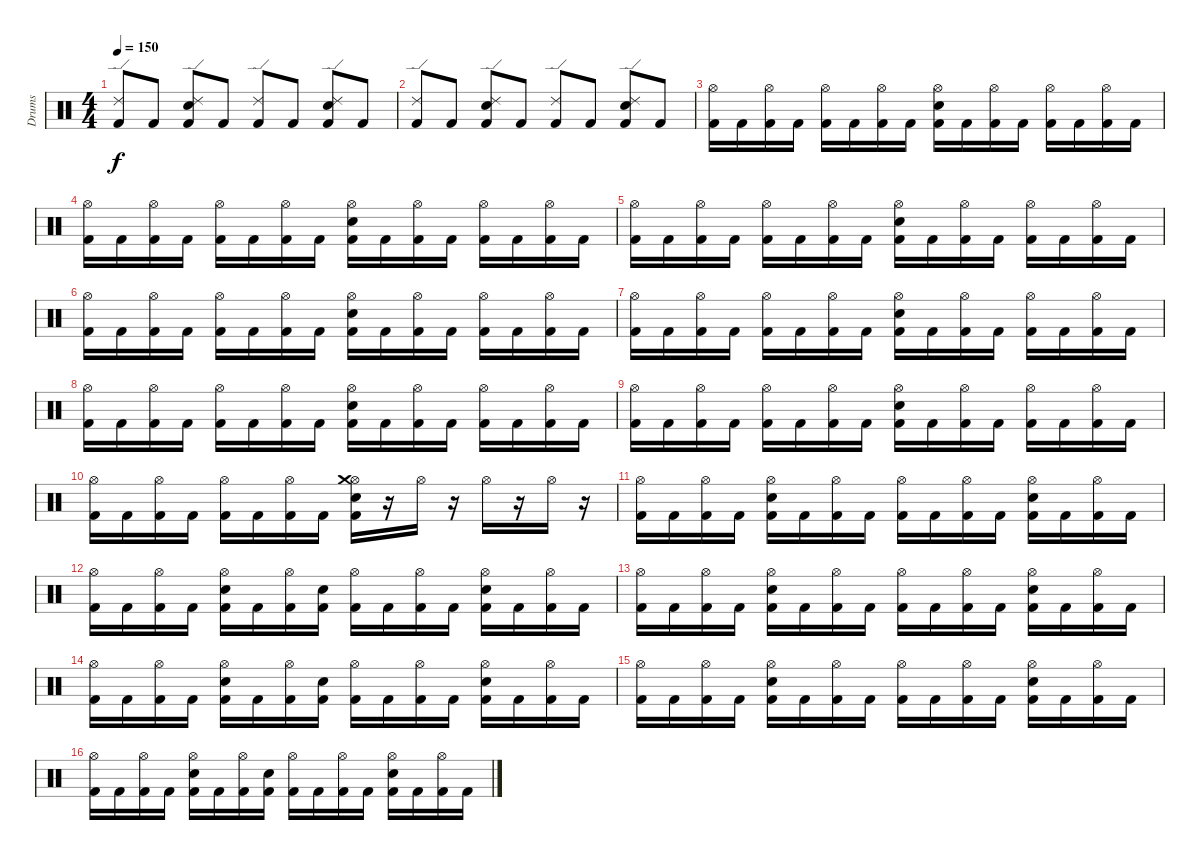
\track ("Drums" "Drums") {instrument percussion}
\staff {score}
\articulation defaults
\ts (4 4)
\tempo 150
\clef neutral
\ks c
("Ride (edge) 2" "Kick (hit) 2").8{dy f} "Kick (hit) 2".8 ("Ride (edge) 2" "Kick (hit) 2" "Snare (hit) 2").8 "Kick (hit) 2".8 ("Ride (edge) 2" "Kick (hit) 2").8 "Kick (hit) 2".8 ("Ride (edge) 2" "Kick (hit) 2" "Snare (hit) 2").8 "Kick (hit) 2".8 |
("Ride (edge) 2" "Kick (hit) 2").8 "Kick (hit) 2".8 ("Ride (edge) 2" "Kick (hit) 2" "Snare (hit) 2").8 "Kick (hit) 2".8 ("Ride (edge) 2" "Kick (hit) 2").8 "Kick (hit) 2".8 ("Ride (edge) 2" "Kick (hit) 2" "Snare (hit) 2").8 "Kick (hit) 2".8 |
("Hi-Hat (open)" "Kick (hit) 2").16 "Kick (hit) 2".16 ("Hi-Hat (open)" "Kick (hit) 2").16 "Kick (hit) 2".16 ("Hi-Hat (open)" "Kick (hit) 2").16 "Kick (hit) 2".16 ("Hi-Hat (open)" "Kick (hit) 2").16 "Kick (hit) 2".16 ("Hi-Hat (open)" "Kick (hit) 2" "Snare (hit) 2").16 "Kick (hit) 2".16 ("Hi-Hat (open)" "Kick (hit) 2").16 "Kick (hit) 2".16 ("Hi-Hat (open)" "Kick (hit) 2").16 "Kick (hit) 2".16 ("Hi-Hat (open)" "Kick (hit) 2").16 "Kick (hit) 2".16 |
("Hi-Hat (open)" "Kick (hit) 2").16 "Kick (hit) 2".16 ("Hi-Hat (open)" "Kick (hit) 2").16 "Kick (hit) 2".16 ("Hi-Hat (open)" "Kick (hit) 2").16 "Kick (hit) 2".16 ("Hi-Hat (open)" "Kick (hit) 2").16 "Kick (hit) 2".16 ("Hi-Hat (open)" "Kick (hit) 2" "Snare (hit) 2").16 "Kick (hit) 2".16 ("Hi-Hat (open)" "Kick (hit) 2").16 "Kick (hit) 2".16 ("Hi-Hat (open)" "Kick (hit) 2").16 "Kick (hit) 2".16 ("Hi-Hat (open)" "Kick (hit) 2").16 "Kick (hit) 2".16 |
("Hi-Hat (open)" "Kick (hit) 2").16 "Kick (hit) 2".16 ("Hi-Hat (open)" "Kick (hit) 2").16 "Kick (hit) 2".16 ("Hi-Hat (open)" "Kick (hit) 2").16 "Kick (hit) 2".16 ("Hi-Hat (open)" "Kick (hit) 2").16 "Kick (hit) 2".16 ("Hi-Hat (open)" "Kick (hit) 2" "Snare (hit) 2").16 "Kick (hit) 2".16 ("Hi-Hat (open)" "Kick (hit) 2").16 "Kick (hit) 2".16 ("Hi-Hat (open)" "Kick (hit) 2").16 "Kick (hit) 2".16 ("Hi-Hat (open)" "Kick (hit) 2").16 "Kick (hit) 2".16 |
("Hi-Hat (open)" "Kick (hit) 2").16 "Kick (hit) 2".16 ("Hi-Hat (open)" "Kick (hit) 2").16 "Kick (hit) 2".16 ("Hi-Hat (open)" "Kick (hit) 2").16 "Kick (hit) 2".16 ("Hi-Hat (open)" "Kick (hit) 2").16 "Kick (hit) 2".16 ("Hi-Hat (open)" "Kick (hit) 2" "Snare (hit) 2").16 "Kick (hit) 2".16 ("Hi-Hat (open)" "Kick (hit) 2").16 "Kick (hit) 2".16 ("Hi-Hat (open)" "Kick (hit) 2").16 "Kick (hit) 2".16 ("Hi-Hat (open)" "Kick (hit) 2").16 "Kick (hit) 2".16 |
("Hi-Hat (open)" "Kick (hit) 2").16 "Kick (hit) 2".16 ("Hi-Hat (open)" "Kick (hit) 2").16 "Kick (hit) 2".16 ("Hi-Hat (open)" "Kick (hit) 2").16 "Kick (hit) 2".16 ("Hi-Hat (open)" "Kick (hit) 2").16 "Kick (hit) 2".16 ("Hi-Hat (open)" "Kick (hit) 2" "Snare (hit) 2").16 "Kick (hit) 2".16 ("Hi-Hat (open)" "Kick (hit) 2").16 "Kick (hit) 2".16 ("Hi-Hat (open)" "Kick (hit) 2").16 "Kick (hit) 2".16 ("Hi-Hat (open)" "Kick (hit) 2").16 "Kick (hit) 2".16 |
("Hi-Hat (open)" "Kick (hit) 2").16 "Kick (hit) 2".16 ("Hi-Hat (open)" "Kick (hit) 2").16 "Kick (hit) 2".16 ("Hi-Hat (open)" "Kick (hit) 2").16 "Kick (hit) 2".16 ("Hi-Hat (open)" "Kick (hit) 2").16 "Kick (hit) 2".16 ("Hi-Hat (open)" "Kick (hit) 2" "Snare (hit) 2").16 "Kick (hit) 2".16 ("Hi-Hat (open)" "Kick (hit) 2").16 "Kick (hit) 2".16 ("Hi-Hat (open)" "Kick (hit) 2").16 "Kick (hit) 2".16 ("Hi-Hat (open)" "Kick (hit) 2").16 "Kick (hit) 2".16 |
("Hi-Hat (open)" "Kick (hit) 2").16 "Kick (hit) 2".16 ("Hi-Hat (open)" "Kick (hit) 2").16 "Kick (hit) 2".16 ("Hi-Hat (open)" "Kick (hit) 2").16 "Kick (hit) 2".16 ("Hi-Hat (open)" "Kick (hit) 2").16 "Kick (hit) 2".16 ("Hi-Hat (open)" "Kick (hit) 2" "Snare (hit) 2").16 "Kick (hit) 2".16 ("Hi-Hat (open)" "Kick (hit) 2").16 "Kick (hit) 2".16 ("Hi-Hat (open)" "Kick (hit) 2").16 "Kick (hit) 2".16 ("Hi-Hat (open)" "Kick (hit) 2").16 "Kick (hit) 2".16 |
("Hi-Hat (open)" "Kick (hit) 2").16 "Kick (hit) 2".16 ("Hi-Hat (open)" "Kick (hit) 2").16 "Kick (hit) 2".16 ("Hi-Hat (open)" "Kick (hit) 2").16 "Kick (hit) 2".16 ("Hi-Hat (open)" "Kick (hit) 2").16 "Kick (hit) 2".16 ("Hi-Hat (open)" "Crash medium (hit)" "Snare (hit) 2" "Kick (hit) 2").16 r.16 "Hi-Hat (open)".16 r.16 "Hi-Hat (open)".16 r.16 "Hi-Hat (open)".16 r.16 |
("Hi-Hat (open)" "Kick (hit) 2").16 "Kick (hit) 2".16 ("Hi-Hat (open)" "Kick (hit) 2").16 "Kick (hit) 2".16 ("Hi-Hat (open)" "Kick (hit) 2" "Snare (hit) 2").16 "Kick (hit) 2".16 ("Hi-Hat (open)" "Kick (hit) 2").16 "Kick (hit) 2".16 ("Hi-Hat (open)" "Kick (hit) 2").16 "Kick (hit) 2".16 ("Hi-Hat (open)" "Kick (hit) 2").16 "Kick (hit) 2".16 ("Hi-Hat (open)" "Kick (hit) 2" "Snare (hit) 2").16 "Kick (hit) 2".16 ("Hi-Hat (open)" "Kick (hit) 2").16 "Kick (hit) 2".16 |
("Hi-Hat (open)" "Kick (hit) 2").16 "Kick (hit) 2".16 ("Hi-Hat (open)" "Kick (hit) 2").16 "Kick (hit) 2".16 ("Hi-Hat (open)" "Kick (hit) 2" "Snare (hit) 2").16 "Kick (hit) 2".16 ("Hi-Hat (open)" "Kick (hit) 2").16 ("Kick (hit) 2" "Snare (hit) 2").16 ("Hi-Hat (open)" "Kick (hit) 2").16 "Kick (hit) 2".16 ("Hi-Hat (open)" "Kick (hit) 2").16 "Kick (hit) 2".16 ("Hi-Hat (open)" "Kick (hit) 2" "Snare (hit) 2").16 "Kick (hit) 2".16 ("Hi-Hat (open)" "Kick (hit) 2").16 "Kick (hit) 2".16 |
("Hi-Hat (open)" "Kick (hit) 2").16 "Kick (hit) 2".16 ("Hi-Hat (open)" "Kick (hit) 2").16 "Kick (hit) 2".16 ("Hi-Hat (open)" "Kick (hit) 2" "Snare (hit) 2").16 "Kick (hit) 2".16 ("Hi-Hat (open)" "Kick (hit) 2").16 "Kick (hit) 2".16 ("Hi-Hat (open)" "Kick (hit) 2").16 "Kick (hit) 2".16 ("Hi-Hat (open)" "Kick (hit) 2").16 "Kick (hit) 2".16 ("Hi-Hat (open)" "Kick (hit) 2" "Snare (hit) 2").16 "Kick (hit) 2".16 ("Hi-Hat (open)" "Kick (hit) 2").16 "Kick (hit) 2".16 |
("Hi-Hat (open)" "Kick (hit) 2").16 "Kick (hit) 2".16 ("Hi-Hat (open)" "Kick (hit) 2").16 "Kick (hit) 2".16 ("Hi-Hat (open)" "Kick (hit) 2" "Snare (hit) 2").16 "Kick (hit) 2".16 ("Hi-Hat (open)" "Kick (hit) 2").16 ("Kick (hit) 2" "Snare (hit) 2").16 ("Hi-Hat (open)" "Kick (hit) 2").16 "Kick (hit) 2".16 ("Hi-Hat (open)" "Kick (hit) 2").16 "Kick (hit) 2".16 ("Hi-Hat (open)" "Kick (hit) 2" "Snare (hit) 2").16 "Kick (hit) 2".16 ("Hi-Hat (open)" "Kick (hit) 2").16 "Kick (hit) 2".16 |
("Hi-Hat (open)" "Kick (hit) 2").16 "Kick (hit) 2".16 ("Hi-Hat (open)" "Kick (hit) 2").16 "Kick (hit) 2".16 ("Hi-Hat (open)" "Kick (hit) 2" "Snare (hit) 2").16 "Kick (hit) 2".16 ("Hi-Hat (open)" "Kick (hit) 2").16 "Kick (hit) 2".16 ("Hi-Hat (open)" "Kick (hit) 2").16 "Kick (hit) 2".16 ("Hi-Hat (open)" "Kick (hit) 2").16 "Kick (hit) 2".16 ("Hi-Hat (open)" "Kick (hit) 2" "Snare (hit) 2").16 "Kick (hit) 2".16 ("Hi-Hat (open)" "Kick (hit) 2").16 "Kick (hit) 2".16 |
("Hi-Hat (open)" "Kick (hit) 2").16 "Kick (hit) 2".16 ("Hi-Hat (open)" "Kick (hit) 2").16 "Kick (hit) 2".16 ("Hi-Hat (open)" "Kick (hit) 2" "Snare (hit) 2").16 "Kick (hit) 2".16 ("Hi-Hat (open)" "Kick (hit) 2").16 ("Kick (hit) 2" "Snare (hit) 2").16 ("Hi-Hat (open)" "Kick (hit) 2").16 "Kick (hit) 2".16 ("Hi-Hat (open)" "Kick (hit) 2").16 "Kick (hit) 2".16 ("Hi-Hat (open)" "Kick (hit) 2" "Snare (hit) 2").16 "Kick (hit) 2".16 ("Hi-Hat (open)" "Kick (hit) 2").16 "Kick (hit) 2".16
